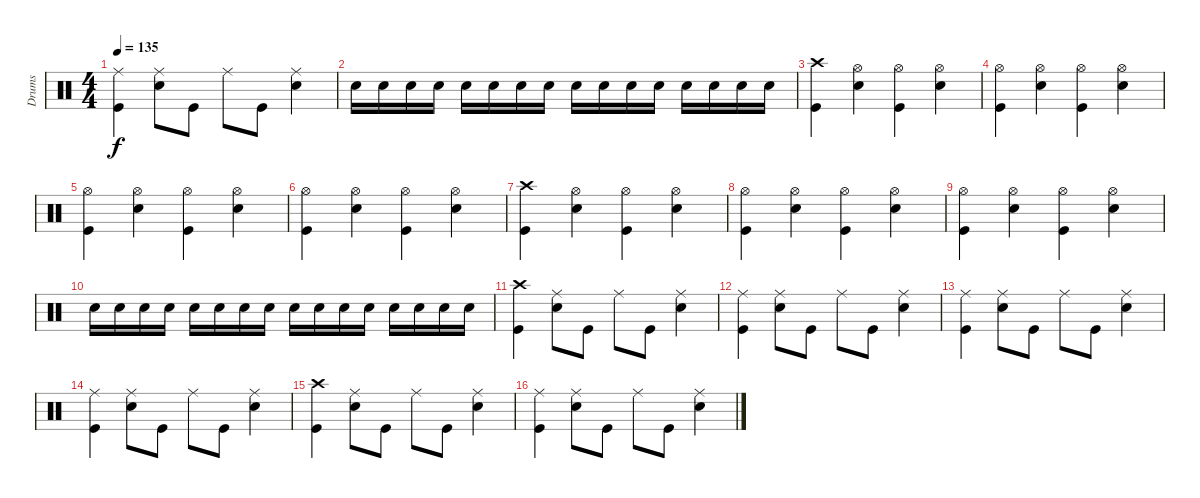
\track ("Drums" "Drums") {instrument percussion}
\staff {score}
\articulation defaults
\ts (4 4)
\tempo 135
\clef neutral
\ks c
("Ride (middle)" "Kick (hit)").4{dy f} ("Ride (middle)" "Snare (hit) 2").8 "Kick (hit)".8 "Ride (middle)".8 "Kick (hit)".8 ("Ride (middle)" "Snare (hit) 2").4 |
"Snare (hit) 2".16 "Snare (hit) 2".16 "Snare (hit) 2".16 "Snare (hit) 2".16 "Snare (hit) 2".16 "Snare (hit) 2".16 "Snare (hit) 2".16 "Snare (hit) 2".16 "Snare (hit) 2".16 "Snare (hit) 2".16 "Snare (hit) 2".16 "Snare (hit) 2".16 "Snare (hit) 2".16 "Snare (hit) 2".16 "Snare (hit) 2".16 "Snare (hit) 2".16 |
("Crash high (hit)" "Kick (hit)").4 ("Hi-Hat (open)" "Snare (hit) 2").4 ("Hi-Hat (open)" "Kick (hit)").4 ("Hi-Hat (open)" "Snare (hit) 2").4 |
("Hi-Hat (open)" "Kick (hit)").4 ("Hi-Hat (open)" "Snare (hit) 2").4 ("Hi-Hat (open)" "Kick (hit)").4 ("Hi-Hat (open)" "Snare (hit) 2").4 |
("Hi-Hat (open)" "Kick (hit)").4 ("Hi-Hat (open)" "Snare (hit) 2").4 ("Hi-Hat (open)" "Kick (hit)").4 ("Hi-Hat (open)" "Snare (hit) 2").4 |
("Hi-Hat (open)" "Kick (hit)").4 ("Hi-Hat (open)" "Snare (hit) 2").4 ("Hi-Hat (open)" "Kick (hit)").4 ("Hi-Hat (open)" "Snare (hit) 2").4 |
("Crash high (hit)" "Kick (hit)").4 ("Hi-Hat (open)" "Snare (hit) 2").4 ("Hi-Hat (open)" "Kick (hit)").4 ("Hi-Hat (open)" "Snare (hit) 2").4 |
("Hi-Hat (open)" "Kick (hit)").4 ("Hi-Hat (open)" "Snare (hit) 2").4 ("Hi-Hat (open)" "Kick (hit)").4 ("Hi-Hat (open)" "Snare (hit) 2").4 |
("Hi-Hat (open)" "Kick (hit)").4 ("Hi-Hat (open)" "Snare (hit) 2").4 ("Hi-Hat (open)" "Kick (hit)").4 ("Hi-Hat (open)" "Snare (hit) 2").4 |
"Snare (hit) 2".16 "Snare (hit) 2".16 "Snare (hit) 2".16 "Snare (hit) 2".16 "Snare (hit) 2".16 "Snare (hit) 2".16 "Snare (hit) 2".16 "Snare (hit) 2".16 "Snare (hit) 2".16 "Snare (hit) 2".16 "Snare (hit) 2".16 "Snare (hit) 2".16 "Snare (hit) 2".16 "Snare (hit) 2".16 "Snare (hit) 2".16 "Snare (hit) 2".16 |
("Crash high (hit)" "Kick (hit)").4 ("Ride (middle)" "Snare (hit) 2").8 "Kick (hit)".8 "Ride (middle)".8 "Kick (hit)".8 ("Ride (middle)" "Snare (hit) 2").4 |
("Ride (middle)" "Kick (hit)").4 ("Ride (middle)" "Snare (hit) 2").8 "Kick (hit)".8 "Ride (middle)".8 "Kick (hit)".8 ("Ride (middle)" "Snare (hit) 2").4 |
("Ride (middle)" "Kick (hit)").4 ("Ride (middle)" "Snare (hit) 2").8 "Kick (hit)".8 "Ride (middle)".8 "Kick (hit)".8 ("Ride (middle)" "Snare (hit) 2").4 |
("Ride (middle)" "Kick (hit)").4 ("Ride (middle)" "Snare (hit) 2").8 "Kick (hit)".8 "Ride (middle)".8 "Kick (hit)".8 ("Ride (middle)" "Snare (hit) 2").4 |
("Crash high (hit)" "Kick (hit)").4 ("Ride (middle)" "Snare (hit) 2").8 "Kick (hit)".8 "Ride (middle)".8 "Kick (hit)".8 ("Ride (middle)" "Snare (hit) 2").4 |
("Ride (middle)" "Kick (hit)").4 ("Ride (middle)" "Snare (hit) 2").8 "Kick (hit)".8 "Ride (middle)".8 "Kick (hit)".8 ("Ride (middle)" "Snare (hit) 2").4
